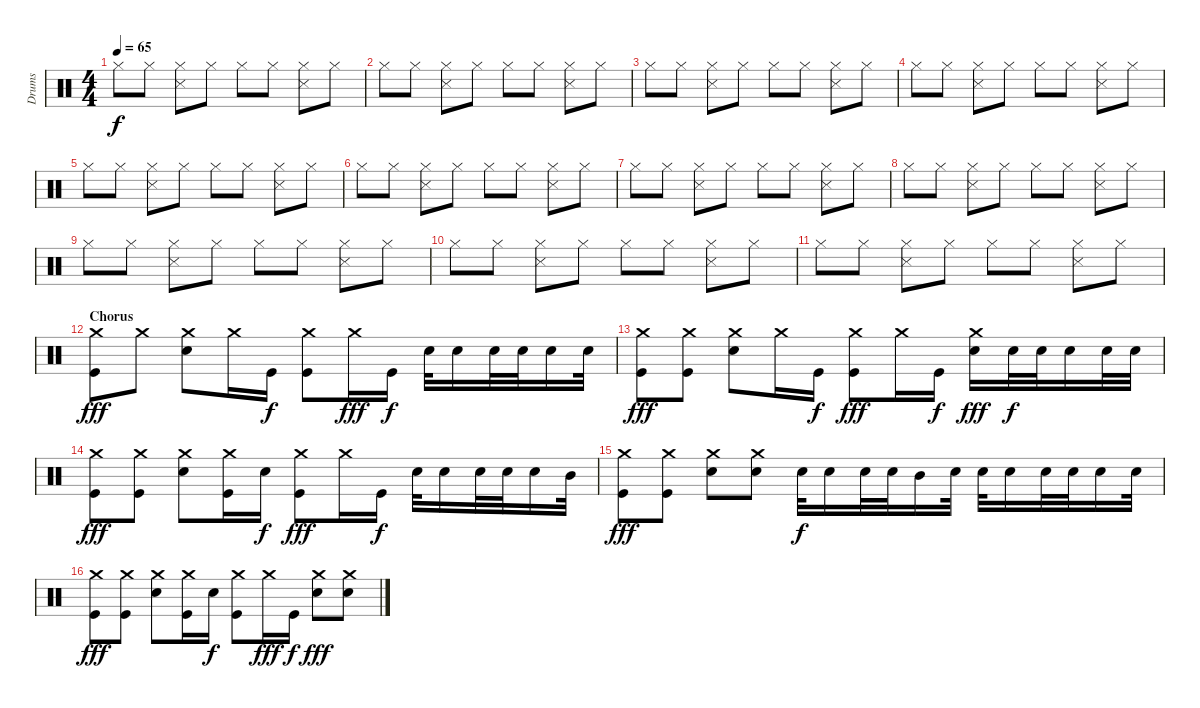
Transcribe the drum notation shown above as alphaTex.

\track ("Drums" "Drums") {instrument percussion}
\staff {score}
\articulation defaults
\ts (4 4)
\tempo 65
\clef neutral
\ks c "Hi-Hat (closed)".8{dy f} "Hi-Hat (closed)".8
("Hi-Hat (closed)" "Snare (side stick) 3").8 "Hi-Hat (closed)".8 "Hi-Hat (closed)".8 "Hi-Hat (closed)".8 ("Hi-Hat (closed)" "Snare (side stick) 3").8 "Hi-Hat (closed)".8 |
"Hi-Hat (closed)".8 "Hi-Hat (closed)".8 ("Hi-Hat (closed)" "Snare (side stick) 3").8 "Hi-Hat (closed)".8 "Hi-Hat (closed)".8 "Hi-Hat (closed)".8 ("Hi-Hat (closed)" "Snare (side stick) 3").8 "Hi-Hat (closed)".8 |
"Hi-Hat (closed)".8 "Hi-Hat (closed)".8 ("Hi-Hat (closed)" "Snare (side stick) 3").8 "Hi-Hat (closed)".8 "Hi-Hat (closed)".8 "Hi-Hat (closed)".8 ("Hi-Hat (closed)" "Snare (side stick) 3").8 "Hi-Hat (closed)".8 |
"Hi-Hat (closed)".8 "Hi-Hat (closed)".8 ("Hi-Hat (closed)" "Snare (side stick) 3").8 "Hi-Hat (closed)".8 "Hi-Hat (closed)".8 "Hi-Hat (closed)".8 ("Hi-Hat (closed)" "Snare (side stick) 3").8 "Hi-Hat (closed)".8 |
"Hi-Hat (closed)".8 "Hi-Hat (closed)".8 ("Hi-Hat (closed)" "Snare (side stick) 3").8 "Hi-Hat (closed)".8 "Hi-Hat (closed)".8 "Hi-Hat (closed)".8 ("Hi-Hat (closed)" "Snare (side stick) 3").8 "Hi-Hat (closed)".8 |
"Hi-Hat (closed)".8 "Hi-Hat (closed)".8 ("Hi-Hat (closed)" "Snare (side stick) 3").8 "Hi-Hat (closed)".8 "Hi-Hat (closed)".8 "Hi-Hat (closed)".8 ("Hi-Hat (closed)" "Snare (side stick) 3").8 "Hi-Hat (closed)".8 |
"Hi-Hat (closed)".8 "Hi-Hat (closed)".8 ("Hi-Hat (closed)" "Snare (side stick) 3").8 "Hi-Hat (closed)".8 "Hi-Hat (closed)".8 "Hi-Hat (closed)".8 ("Hi-Hat (closed)" "Snare (side stick) 3").8 "Hi-Hat (closed)".8 |
"Hi-Hat (closed)".8 "Hi-Hat (closed)".8 ("Hi-Hat (closed)" "Snare (side stick) 3").8 "Hi-Hat (closed)".8 "Hi-Hat (closed)".8 "Hi-Hat (closed)".8 ("Hi-Hat (closed)" "Snare (side stick) 3").8 "Hi-Hat (closed)".8 |
"Hi-Hat (closed)".8 "Hi-Hat (closed)".8 ("Hi-Hat (closed)" "Snare (side stick) 3").8 "Hi-Hat (closed)".8 "Hi-Hat (closed)".8 "Hi-Hat (closed)".8 ("Hi-Hat (closed)" "Snare (side stick) 3").8 "Hi-Hat (closed)".8 |
"Hi-Hat (closed)".8 "Hi-Hat (closed)".8 ("Hi-Hat (closed)" "Snare (side stick) 3").8 "Hi-Hat (closed)".8 "Hi-Hat (closed)".8 "Hi-Hat (closed)".8 ("Hi-Hat (closed)" "Snare (side stick) 3").8 "Hi-Hat (closed)".8 |
"Hi-Hat (closed)".8 "Hi-Hat (closed)".8 ("Hi-Hat (closed)" "Snare (side stick) 3").8 "Hi-Hat (closed)".8 "Hi-Hat (closed)".8 "Hi-Hat (closed)".8 ("Hi-Hat (closed)" "Snare (side stick) 3").8 "Hi-Hat (closed)".8 |
\section ("" "Chorus")
("Crash medium (hit)" "Kick (hit)").8{dy fff} "Crash medium (hit)".8 ("Crash medium (hit)" "Electric Snare (hit)").8 "Crash medium (hit)".16 "Kick (hit)".16{dy f} ("Crash medium (hit)" "Kick (hit)").8 "Crash medium (hit)".16{dy fff} "Kick (hit)".16{dy f} "Electric Snare (hit)".32 "Electric Snare (hit)".16 "Electric Snare (hit)".32 "Electric Snare (hit)".32 "Electric Snare (hit)".16 "Electric Snare (hit)".32 |
("Crash medium (hit)" "Kick (hit)").8{dy fff} ("Crash medium (hit)" "Kick (hit)").8 ("Crash medium (hit)" "Electric Snare (hit)").8 "Crash medium (hit)".16 "Kick (hit)".16{dy f} ("Crash medium (hit)" "Kick (hit)").8{dy fff} "Crash medium (hit)".16 "Kick (hit)".16{dy f} ("Crash medium (hit)" "Electric Snare (hit)").16{dy fff} "Electric Snare (hit)".32{dy f} "Electric Snare (hit)".32 "Electric Snare (hit)".16 "Electric Snare (hit)".32 "Electric Snare (hit)".32 |
("Crash medium (hit)" "Kick (hit)").8{dy fff} ("Crash medium (hit)" "Kick (hit)").8 ("Crash medium (hit)" "Electric Snare (hit)").8 ("Crash medium (hit)" "Kick (hit)").16 "Electric Snare (hit)".16{dy f} ("Crash medium (hit)" "Kick (hit)").8{dy fff} "Crash medium (hit)".16 "Kick (hit)".16{dy f} "Electric Snare (hit)".32 "Electric Snare (hit)".16 "Electric Snare (hit)".32 "Electric Snare (hit)".32 "Electric Snare (hit)".16 "Mid Tom (hit)".32 |
("Crash medium (hit)" "Kick (hit)").8{dy fff} ("Crash medium (hit)" "Kick (hit)").8 ("Crash medium (hit)" "Electric Snare (hit)").8 ("Crash medium (hit)" "Electric Snare (hit)").8 "Electric Snare (hit)".32{dy f} "Electric Snare (hit)".16 "Electric Snare (hit)".32 "Electric Snare (hit)".32 "Mid Tom (hit)".16 "Electric Snare (hit)".32 "Electric Snare (hit)".32 "Electric Snare (hit)".16 "Electric Snare (hit)".32 "Electric Snare (hit)".32 "Electric Snare (hit)".16 "Electric Snare (hit)".32 |
("Crash medium (hit)" "Kick (hit)").8{dy fff} ("Crash medium (hit)" "Kick (hit)").8 ("Crash medium (hit)" "Electric Snare (hit)").8 ("Crash medium (hit)" "Kick (hit)").16 "Electric Snare (hit)".16{dy f} ("Crash medium (hit)" "Kick (hit)").8 "Crash medium (hit)".16{dy fff} "Kick (hit)".16{dy f} ("Crash medium (hit)" "Electric Snare (hit)").8{dy fff} ("Crash medium (hit)" "Electric Snare (hit)").8
